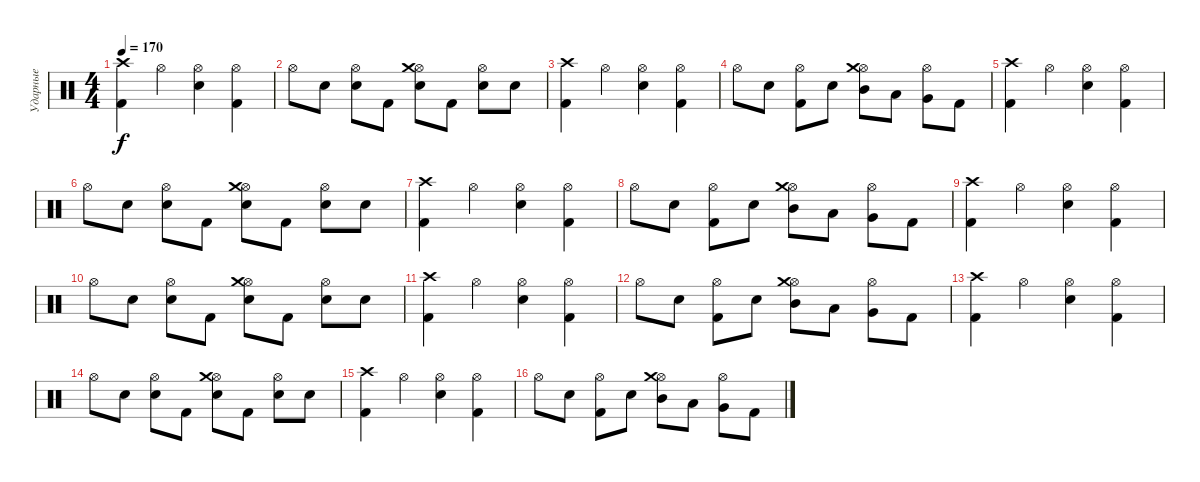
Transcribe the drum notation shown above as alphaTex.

\track ("Ударные" "Ударные") {instrument percussion}
\staff {score}
\articulation defaults
\ts (4 4)
\tempo 170
\clef neutral
\ks c
("Crash high (hit)" "Kick (hit) 2").4{dy f} "Hi-Hat (open)".4 ("Hi-Hat (open)" "Electric Snare (hit)").4 ("Hi-Hat (open)" "Kick (hit) 2").4 |
"Hi-Hat (open)".8 "Electric Snare (hit)".8 ("Hi-Hat (open)" "Electric Snare (hit)").8 "Kick (hit) 2".8 ("Hi-Hat (open)" "Crash medium (hit)" "Electric Snare (hit)").8 "Kick (hit) 2".8 ("Hi-Hat (open)" "Electric Snare (hit)").8 "Electric Snare (hit)".8 |
("Crash high (hit)" "Kick (hit) 2").4 "Hi-Hat (open)".4 ("Hi-Hat (open)" "Electric Snare (hit)").4 ("Hi-Hat (open)" "Kick (hit) 2").4 |
"Hi-Hat (open)".8 "Electric Snare (hit)".8 ("Hi-Hat (open)" "Kick (hit) 2").8 "Electric Snare (hit)".8 ("Hi-Hat (open)" "Crash medium (hit)" "Mid Tom (hit)").8 "Low Tom (hit)".8 ("Hi-Hat (open)" "Very Low Tom (hit)").8 "Kick (hit) 2".8 |
("Crash high (hit)" "Kick (hit) 2").4 "Hi-Hat (open)".4 ("Hi-Hat (open)" "Electric Snare (hit)").4 ("Hi-Hat (open)" "Kick (hit) 2").4 |
"Hi-Hat (open)".8 "Electric Snare (hit)".8 ("Hi-Hat (open)" "Electric Snare (hit)").8 "Kick (hit) 2".8 ("Hi-Hat (open)" "Crash medium (hit)" "Electric Snare (hit)").8 "Kick (hit) 2".8 ("Hi-Hat (open)" "Electric Snare (hit)").8 "Electric Snare (hit)".8 |
("Crash high (hit)" "Kick (hit) 2").4 "Hi-Hat (open)".4 ("Hi-Hat (open)" "Electric Snare (hit)").4 ("Hi-Hat (open)" "Kick (hit) 2").4 |
"Hi-Hat (open)".8 "Electric Snare (hit)".8 ("Hi-Hat (open)" "Kick (hit) 2").8 "Electric Snare (hit)".8 ("Hi-Hat (open)" "Crash medium (hit)" "Mid Tom (hit)").8 "Low Tom (hit)".8 ("Hi-Hat (open)" "Very Low Tom (hit)").8 "Kick (hit) 2".8 |
("Crash high (hit)" "Kick (hit) 2").4 "Hi-Hat (open)".4 ("Hi-Hat (open)" "Electric Snare (hit)").4 ("Hi-Hat (open)" "Kick (hit) 2").4 |
"Hi-Hat (open)".8 "Electric Snare (hit)".8 ("Hi-Hat (open)" "Electric Snare (hit)").8 "Kick (hit) 2".8 ("Hi-Hat (open)" "Crash medium (hit)" "Electric Snare (hit)").8 "Kick (hit) 2".8 ("Hi-Hat (open)" "Electric Snare (hit)").8 "Electric Snare (hit)".8 |
("Crash high (hit)" "Kick (hit) 2").4 "Hi-Hat (open)".4 ("Hi-Hat (open)" "Electric Snare (hit)").4 ("Hi-Hat (open)" "Kick (hit) 2").4 |
"Hi-Hat (open)".8 "Electric Snare (hit)".8 ("Hi-Hat (open)" "Kick (hit) 2").8 "Electric Snare (hit)".8 ("Hi-Hat (open)" "Crash medium (hit)" "Mid Tom (hit)").8 "Low Tom (hit)".8 ("Hi-Hat (open)" "Very Low Tom (hit)").8 "Kick (hit) 2".8 |
("Crash high (hit)" "Kick (hit) 2").4 "Hi-Hat (open)".4 ("Hi-Hat (open)" "Electric Snare (hit)").4 ("Hi-Hat (open)" "Kick (hit) 2").4 |
"Hi-Hat (open)".8 "Electric Snare (hit)".8 ("Hi-Hat (open)" "Electric Snare (hit)").8 "Kick (hit) 2".8 ("Hi-Hat (open)" "Crash medium (hit)" "Electric Snare (hit)").8 "Kick (hit) 2".8 ("Hi-Hat (open)" "Electric Snare (hit)").8 "Electric Snare (hit)".8 |
("Crash high (hit)" "Kick (hit) 2").4 "Hi-Hat (open)".4 ("Hi-Hat (open)" "Electric Snare (hit)").4 ("Hi-Hat (open)" "Kick (hit) 2").4 |
"Hi-Hat (open)".8 "Electric Snare (hit)".8 ("Hi-Hat (open)" "Kick (hit) 2").8 "Electric Snare (hit)".8 ("Hi-Hat (open)" "Crash medium (hit)" "Mid Tom (hit)").8 "Low Tom (hit)".8 ("Hi-Hat (open)" "Very Low Tom (hit)").8 "Kick (hit) 2".8
